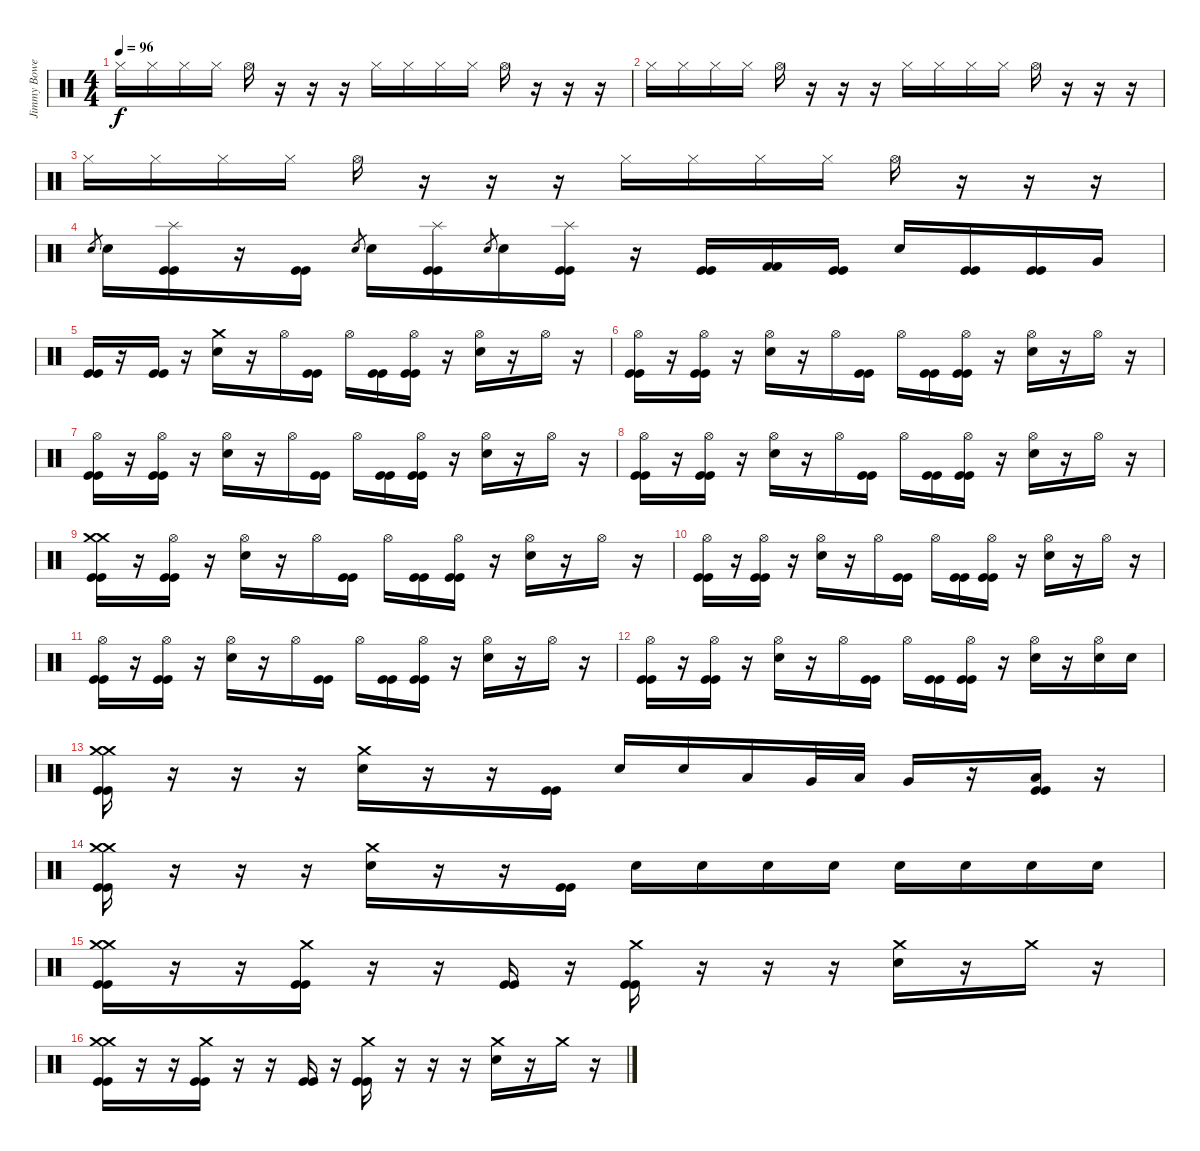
\track ("Jimmy Bower" "Jimmy Bowe") {instrument percussion}
\staff {score}
\articulation defaults
\ts (4 4)
\tempo 96
\clef neutral
\ks c "Hi-Hat (closed)".16{dy f} "Hi-Hat (closed)".16 "Hi-Hat (closed)".16 "Hi-Hat (closed)".16 "Hi-Hat (open)".16
r.16 r.16 r.16 "Hi-Hat (closed)".16 "Hi-Hat (closed)".16 "Hi-Hat (closed)".16 "Hi-Hat (closed)".16 "Hi-Hat (open)".16 r.16 r.16 r.16 |
"Hi-Hat (closed)".16 "Hi-Hat (closed)".16 "Hi-Hat (closed)".16 "Hi-Hat (closed)".16 "Hi-Hat (open)".16 r.16 r.16 r.16 "Hi-Hat (closed)".16 "Hi-Hat (closed)".16 "Hi-Hat (closed)".16 "Hi-Hat (closed)".16 "Hi-Hat (open)".16 r.16 r.16 r.16 |
"Hi-Hat (closed)".16 "Hi-Hat (closed)".16 "Hi-Hat (closed)".16 "Hi-Hat (closed)".16 "Hi-Hat (open)".16 r.16 r.16 r.16 "Hi-Hat (closed)".16 "Hi-Hat (closed)".16 "Hi-Hat (closed)".16 "Hi-Hat (closed)".16 "Hi-Hat (open)".16 r.16 r.16 r.16 |
"Snare (hit) 2".8{gr} "Snare (hit) 2".16 ("Splash (hit)" "Kick (hit)" "Kick (hit)").16 r.16 ("Kick (hit)" "Kick (hit)").16 "Snare (hit) 2".8{gr} "Snare (hit) 2".16 ("Splash (hit)" "Kick (hit)" "Kick (hit)").16 "Snare (hit) 2".8{gr} "Snare (hit) 2".16 ("Splash (hit)" "Kick (hit)" "Kick (hit)").16 r.16 ("Kick (hit)" "Kick (hit)").16 ("Kick (hit) 2" "Kick (hit) 2").16 ("Kick (hit)" "Kick (hit)").16 "Snare (hit) 2".16 ("Kick (hit)" "Kick (hit)").16 ("Kick (hit)" "Kick (hit)").16 "Very Low Tom (hit)".16 |
("Kick (hit)" "Kick (hit)").16 r.16 ("Kick (hit)" "Kick (hit)").16 r.16 ("Crash medium (hit)" "Snare (hit) 2").16 r.16 "Hi-Hat (open)".16 ("Kick (hit)" "Kick (hit)").16 "Hi-Hat (open)".16 ("Kick (hit)" "Kick (hit)").16 ("Hi-Hat (open)" "Kick (hit)" "Kick (hit)").16 r.16 ("Hi-Hat (open)" "Snare (hit) 2").16 r.16 "Hi-Hat (open)".16 r.16 |
("Hi-Hat (open)" "Kick (hit)" "Kick (hit)").16 r.16 ("Hi-Hat (open)" "Kick (hit)" "Kick (hit)").16 r.16 ("Hi-Hat (open)" "Snare (hit) 2").16 r.16 "Hi-Hat (open)".16 ("Kick (hit)" "Kick (hit)").16 "Hi-Hat (open)".16 ("Kick (hit)" "Kick (hit)").16 ("Hi-Hat (open)" "Kick (hit)" "Kick (hit)").16 r.16 ("Hi-Hat (open)" "Snare (hit) 2").16 r.16 "Hi-Hat (open)".16 r.16 |
("Hi-Hat (open)" "Kick (hit)" "Kick (hit)").16 r.16 ("Hi-Hat (open)" "Kick (hit)" "Kick (hit)").16 r.16 ("Hi-Hat (open)" "Snare (hit) 2").16 r.16 "Hi-Hat (open)".16 ("Kick (hit)" "Kick (hit)").16 "Hi-Hat (open)".16 ("Kick (hit)" "Kick (hit)").16 ("Hi-Hat (open)" "Kick (hit)" "Kick (hit)").16 r.16 ("Hi-Hat (open)" "Snare (hit) 2").16 r.16 "Hi-Hat (open)".16 r.16 |
("Hi-Hat (open)" "Kick (hit)" "Kick (hit)").16 r.16 ("Hi-Hat (open)" "Kick (hit)" "Kick (hit)").16 r.16 ("Hi-Hat (open)" "Snare (hit) 2").16 r.16 "Hi-Hat (open)".16 ("Kick (hit)" "Kick (hit)").16 "Hi-Hat (open)".16 ("Kick (hit)" "Kick (hit)").16 ("Hi-Hat (open)" "Kick (hit)" "Kick (hit)").16 r.16 ("Hi-Hat (open)" "Snare (hit) 2").16 r.16 "Hi-Hat (open)".16 r.16 |
("Crash medium (hit)" "Crash medium (hit)" "Kick (hit)" "Kick (hit)").16 r.16 ("Hi-Hat (open)" "Kick (hit)" "Kick (hit)").16 r.16 ("Hi-Hat (open)" "Snare (hit) 2").16 r.16 "Hi-Hat (open)".16 ("Kick (hit)" "Kick (hit)").16 "Hi-Hat (open)".16 ("Kick (hit)" "Kick (hit)").16 ("Hi-Hat (open)" "Kick (hit)" "Kick (hit)").16 r.16 ("Hi-Hat (open)" "Snare (hit) 2").16 r.16 "Hi-Hat (open)".16 r.16 |
("Hi-Hat (open)" "Kick (hit)" "Kick (hit)").16 r.16 ("Hi-Hat (open)" "Kick (hit)" "Kick (hit)").16 r.16 ("Hi-Hat (open)" "Snare (hit) 2").16 r.16 "Hi-Hat (open)".16 ("Kick (hit)" "Kick (hit)").16 "Hi-Hat (open)".16 ("Kick (hit)" "Kick (hit)").16 ("Hi-Hat (open)" "Kick (hit)" "Kick (hit)").16 r.16 ("Hi-Hat (open)" "Snare (hit) 2").16 r.16 "Hi-Hat (open)".16 r.16 |
("Hi-Hat (open)" "Kick (hit)" "Kick (hit)").16 r.16 ("Hi-Hat (open)" "Kick (hit)" "Kick (hit)").16 r.16 ("Hi-Hat (open)" "Snare (hit) 2").16 r.16 "Hi-Hat (open)".16 ("Kick (hit)" "Kick (hit)").16 "Hi-Hat (open)".16 ("Kick (hit)" "Kick (hit)").16 ("Hi-Hat (open)" "Kick (hit)" "Kick (hit)").16 r.16 ("Hi-Hat (open)" "Snare (hit) 2").16 r.16 "Hi-Hat (open)".16 r.16 |
("Hi-Hat (open)" "Kick (hit)" "Kick (hit)").16 r.16 ("Hi-Hat (open)" "Kick (hit)" "Kick (hit)").16 r.16 ("Hi-Hat (open)" "Snare (hit) 2").16 r.16 "Hi-Hat (open)".16 ("Kick (hit)" "Kick (hit)").16 "Hi-Hat (open)".16 ("Kick (hit)" "Kick (hit)").16 ("Hi-Hat (open)" "Kick (hit)" "Kick (hit)").16 r.16 ("Hi-Hat (open)" "Snare (hit) 2").16 r.16 ("Hi-Hat (open)" "Snare (hit) 2").16 "Snare (hit) 2".16 |
("Crash medium (hit)" "Crash medium (hit)" "Kick (hit)" "Kick (hit)").16 r.16 r.16 r.16 ("Crash medium (hit)" "Snare (hit) 2").16 r.16 r.16 ("Kick (hit)" "Kick (hit)").16 "Snare (hit) 2".16 "Snare (hit) 2".16 "Low Tom (hit)".16 "Very Low Tom (hit)".32 "Low Tom (hit)".32 "Very Low Tom (hit)".16 r.16 ("Low Floor Tom (hit)" "Kick (hit)" "Kick (hit)").16 r.16 |
("Crash medium (hit)" "Crash medium (hit)" "Kick (hit)" "Kick (hit)").16 r.16 r.16 r.16 ("Crash medium (hit)" "Snare (hit) 2").16 r.16 r.16 ("Kick (hit)" "Kick (hit)").16 "Snare (hit) 2".16 "Snare (hit) 2".16 "Snare (hit) 2".16 "Snare (hit) 2".16 "Snare (hit) 2".16 "Snare (hit) 2".16 "Snare (hit) 2".16 "Snare (hit) 2".16 |
("Crash medium (hit)" "Crash medium (hit)" "Kick (hit)" "Kick (hit)").16 r.16 r.16 ("Crash medium (hit)" "Kick (hit)" "Kick (hit)").16 r.16 r.16 ("Kick (hit)" "Kick (hit)").16 r.16 ("Crash medium (hit)" "Kick (hit)" "Kick (hit)").16 r.16 r.16 r.16 ("Crash medium (hit)" "Snare (hit) 2").16 r.16 "Crash medium (hit)".16 r.16 |
("Crash medium (hit)" "Crash medium (hit)" "Kick (hit)" "Kick (hit)").16 r.16 r.16 ("Crash medium (hit)" "Kick (hit)" "Kick (hit)").16 r.16 r.16 ("Kick (hit)" "Kick (hit)").16 r.16 ("Crash medium (hit)" "Kick (hit)" "Kick (hit)").16 r.16 r.16 r.16 ("Crash medium (hit)" "Snare (hit) 2").16 r.16 "Crash medium (hit)".16 r.16
